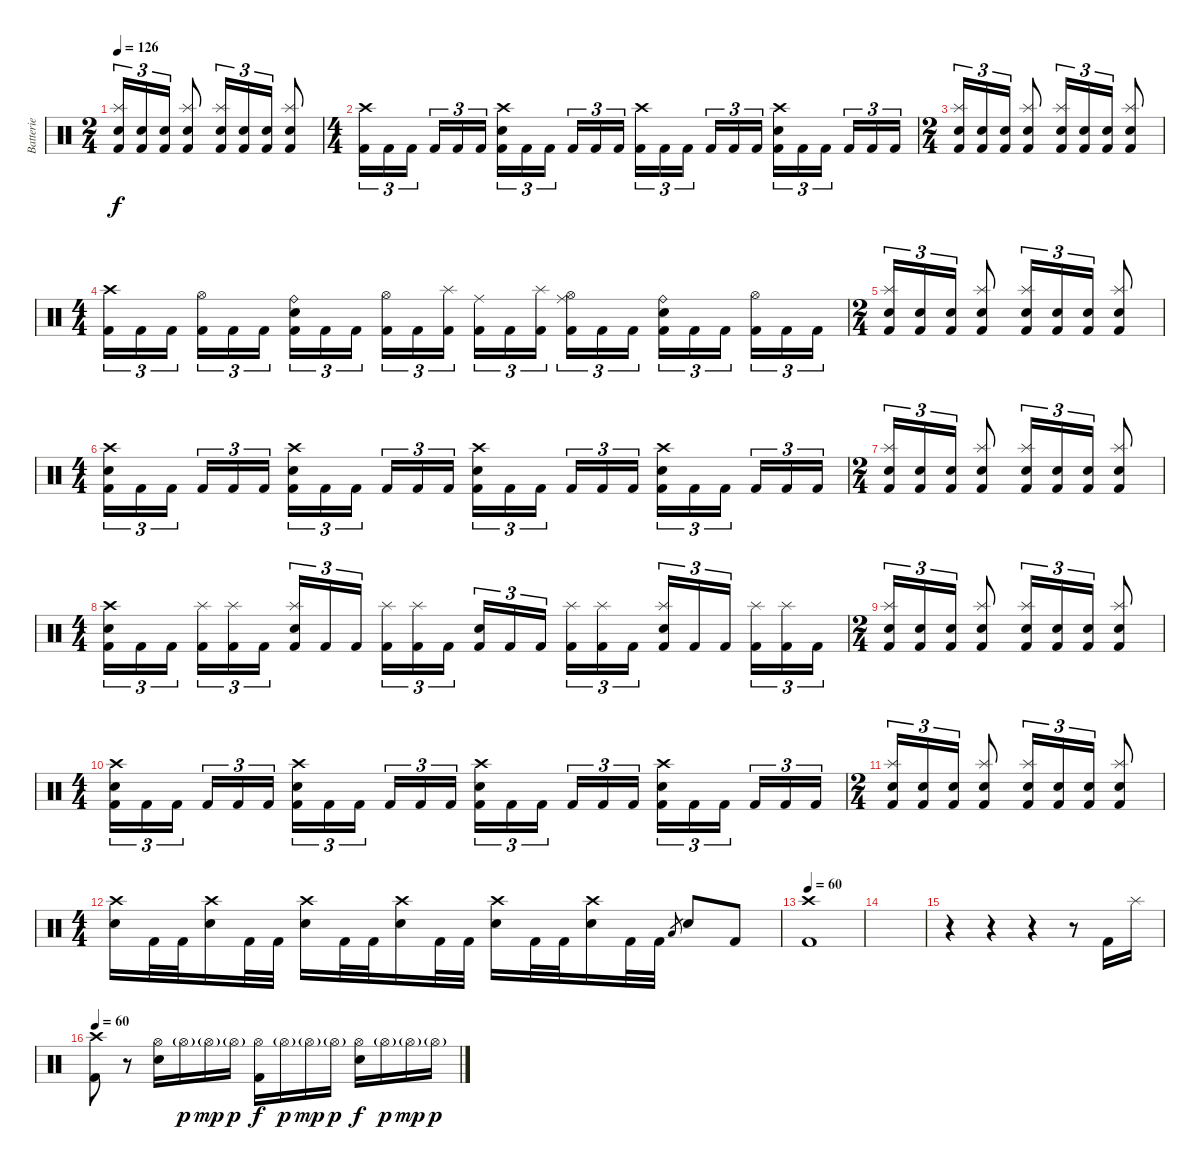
\track ("Batterie" "Batterie") {instrument percussion}
\staff {score}
\articulation defaults
\ts (2 4)
\tempo 126
\clef neutral
\ks c
("Electric Snare (hit)" "Splash (hit)" "Kick (hit) 2").16{tu (3 2) dy f} ("Electric Snare (hit)" "Kick (hit) 2").16{tu (3 2)} ("Electric Snare (hit)" "Kick (hit) 2").16{tu (3 2)} ("Electric Snare (hit)" "Splash (hit)" "Kick (hit) 2").8 ("Electric Snare (hit)" "Splash (hit)" "Kick (hit) 2").16{tu (3 2)} ("Electric Snare (hit)" "Kick (hit) 2").16{tu (3 2)} ("Electric Snare (hit)" "Kick (hit) 2").16{tu (3 2)} ("Electric Snare (hit)" "Splash (hit)" "Kick (hit) 2").8 |
\ts (4 4)
("Crash high (hit)" "Kick (hit) 2").16{tu (3 2)} "Kick (hit) 2".16{tu (3 2)} "Kick (hit) 2".16{tu (3 2)} "Kick (hit) 2".16{tu (3 2)} "Kick (hit) 2".16{tu (3 2)} "Kick (hit) 2".16{tu (3 2)} ("Electric Snare (hit)" "Crash high (hit)" "Kick (hit) 2").16{tu (3 2)} "Kick (hit) 2".16{tu (3 2)} "Kick (hit) 2".16{tu (3 2)} "Kick (hit) 2".16{tu (3 2)} "Kick (hit) 2".16{tu (3 2)} "Kick (hit) 2".16{tu (3 2)} ("Crash high (hit)" "Kick (hit) 2").16{tu (3 2)} "Kick (hit) 2".16{tu (3 2)} "Kick (hit) 2".16{tu (3 2)} "Kick (hit) 2".16{tu (3 2)} "Kick (hit) 2".16{tu (3 2)} "Kick (hit) 2".16{tu (3 2)} ("Electric Snare (hit)" "Crash high (hit)" "Kick (hit) 2").16{tu (3 2)} "Kick (hit) 2".16{tu (3 2)} "Kick (hit) 2".16{tu (3 2)} "Kick (hit) 2".16{tu (3 2)} "Kick (hit) 2".16{tu (3 2)} "Kick (hit) 2".16{tu (3 2)} |
\ts (2 4)
("Electric Snare (hit)" "Splash (hit)" "Kick (hit) 2").16{tu (3 2)} ("Electric Snare (hit)" "Kick (hit) 2").16{tu (3 2)} ("Electric Snare (hit)" "Kick (hit) 2").16{tu (3 2)} ("Electric Snare (hit)" "Splash (hit)" "Kick (hit) 2").8 ("Electric Snare (hit)" "Splash (hit)" "Kick (hit) 2").16{tu (3 2)} ("Electric Snare (hit)" "Kick (hit) 2").16{tu (3 2)} ("Electric Snare (hit)" "Kick (hit) 2").16{tu (3 2)} ("Electric Snare (hit)" "Splash (hit)" "Kick (hit) 2").8 |
\ts (4 4)
("Crash high (hit)" "Kick (hit) 2").16{tu (3 2)} "Kick (hit) 2".16{tu (3 2)} "Kick (hit) 2".16{tu (3 2)} ("Hi-Hat (open)" "Kick (hit) 2").16{tu (3 2)} "Kick (hit) 2".16{tu (3 2)} "Kick (hit) 2".16{tu (3 2)} ("Ride (bell)" "Electric Snare (hit)" "Kick (hit) 2").16{tu (3 2)} "Kick (hit) 2".16{tu (3 2)} "Kick (hit) 2".16{tu (3 2)} ("Hi-Hat (open)" "Kick (hit) 2").16{tu (3 2)} "Kick (hit) 2".16{tu (3 2)} ("Splash (hit)" "Kick (hit) 2").16{tu (3 2)} ("Ride (middle)" "Kick (hit) 2").16{tu (3 2)} "Kick (hit) 2".16{tu (3 2)} ("Splash (hit)" "Kick (hit) 2").16{tu (3 2)} ("Ride (middle)" "Hi-Hat (open)" "Kick (hit) 2").16{tu (3 2)} "Kick (hit) 2".16{tu (3 2)} "Kick (hit) 2".16{tu (3 2)} ("Ride (bell)" "Electric Snare (hit)" "Kick (hit) 2").16{tu (3 2)} "Kick (hit) 2".16{tu (3 2)} "Kick (hit) 2".16{tu (3 2)} ("Hi-Hat (open)" "Kick (hit) 2").16{tu (3 2)} "Kick (hit) 2".16{tu (3 2)} "Kick (hit) 2".16{tu (3 2)} |
\ts (2 4)
("Electric Snare (hit)" "Splash (hit)" "Kick (hit) 2").16{tu (3 2)} ("Electric Snare (hit)" "Kick (hit) 2").16{tu (3 2)} ("Electric Snare (hit)" "Kick (hit) 2").16{tu (3 2)} ("Electric Snare (hit)" "Splash (hit)" "Kick (hit) 2").8 ("Electric Snare (hit)" "Splash (hit)" "Kick (hit) 2").16{tu (3 2)} ("Electric Snare (hit)" "Kick (hit) 2").16{tu (3 2)} ("Electric Snare (hit)" "Kick (hit) 2").16{tu (3 2)} ("Electric Snare (hit)" "Splash (hit)" "Kick (hit) 2").8 |
\ts (4 4)
("Crash high (hit)" "Electric Snare (hit)" "Kick (hit) 2").16{tu (3 2)} "Kick (hit) 2".16{tu (3 2)} "Kick (hit) 2".16{tu (3 2)} "Kick (hit) 2".16{tu (3 2)} "Kick (hit) 2".16{tu (3 2)} "Kick (hit) 2".16{tu (3 2)} ("Electric Snare (hit)" "Crash high (hit)" "Kick (hit) 2").16{tu (3 2)} "Kick (hit) 2".16{tu (3 2)} "Kick (hit) 2".16{tu (3 2)} "Kick (hit) 2".16{tu (3 2)} "Kick (hit) 2".16{tu (3 2)} "Kick (hit) 2".16{tu (3 2)} ("Crash high (hit)" "Electric Snare (hit)" "Kick (hit) 2").16{tu (3 2)} "Kick (hit) 2".16{tu (3 2)} "Kick (hit) 2".16{tu (3 2)} "Kick (hit) 2".16{tu (3 2)} "Kick (hit) 2".16{tu (3 2)} "Kick (hit) 2".16{tu (3 2)} ("Electric Snare (hit)" "Crash high (hit)" "Kick (hit) 2").16{tu (3 2)} "Kick (hit) 2".16{tu (3 2)} "Kick (hit) 2".16{tu (3 2)} "Kick (hit) 2".16{tu (3 2)} "Kick (hit) 2".16{tu (3 2)} "Kick (hit) 2".16{tu (3 2)} |
\ts (2 4)
("Electric Snare (hit)" "Splash (hit)" "Kick (hit) 2").16{tu (3 2)} ("Electric Snare (hit)" "Kick (hit) 2").16{tu (3 2)} ("Electric Snare (hit)" "Kick (hit) 2").16{tu (3 2)} ("Electric Snare (hit)" "Splash (hit)" "Kick (hit) 2").8 ("Electric Snare (hit)" "Splash (hit)" "Kick (hit) 2").16{tu (3 2)} ("Electric Snare (hit)" "Kick (hit) 2").16{tu (3 2)} ("Electric Snare (hit)" "Kick (hit) 2").16{tu (3 2)} ("Electric Snare (hit)" "Splash (hit)" "Kick (hit) 2").8 |
\ts (4 4)
("Electric Snare (hit)" "Crash high (hit)" "Kick (hit) 2").16{tu (3 2)} "Kick (hit) 2".16{tu (3 2)} "Kick (hit) 2".16{tu (3 2)} ("Splash (hit)" "Kick (hit) 2").16{tu (3 2)} ("Splash (hit)" "Kick (hit) 2").16{tu (3 2)} "Kick (hit) 2".16{tu (3 2)} ("Splash (hit)" "Electric Snare (hit)" "Kick (hit) 2").16{tu (3 2)} "Kick (hit) 2".16{tu (3 2)} "Kick (hit) 2".16{tu (3 2)} ("Splash (hit)" "Kick (hit) 2").16{tu (3 2)} ("Splash (hit)" "Kick (hit) 2").16{tu (3 2)} "Kick (hit) 2".16{tu (3 2)} ("Electric Snare (hit)" "Kick (hit) 2").16{tu (3 2)} "Kick (hit) 2".16{tu (3 2)} "Kick (hit) 2".16{tu (3 2)} ("Splash (hit)" "Kick (hit) 2").16{tu (3 2)} ("Splash (hit)" "Kick (hit) 2").16{tu (3 2)} "Kick (hit) 2".16{tu (3 2)} ("Splash (hit)" "Electric Snare (hit)" "Kick (hit) 2").16{tu (3 2)} "Kick (hit) 2".16{tu (3 2)} "Kick (hit) 2".16{tu (3 2)} ("Splash (hit)" "Kick (hit) 2").16{tu (3 2)} ("Splash (hit)" "Kick (hit) 2").16{tu (3 2)} "Kick (hit) 2".16{tu (3 2)} |
\ts (2 4)
("Electric Snare (hit)" "Splash (hit)" "Kick (hit) 2").16{tu (3 2)} ("Electric Snare (hit)" "Kick (hit) 2").16{tu (3 2)} ("Electric Snare (hit)" "Kick (hit) 2").16{tu (3 2)} ("Electric Snare (hit)" "Splash (hit)" "Kick (hit) 2").8 ("Electric Snare (hit)" "Splash (hit)" "Kick (hit) 2").16{tu (3 2)} ("Electric Snare (hit)" "Kick (hit) 2").16{tu (3 2)} ("Electric Snare (hit)" "Kick (hit) 2").16{tu (3 2)} ("Electric Snare (hit)" "Splash (hit)" "Kick (hit) 2").8 |
\ts (4 4)
("Crash high (hit)" "Electric Snare (hit)" "Kick (hit) 2").16{tu (3 2)} "Kick (hit) 2".16{tu (3 2)} "Kick (hit) 2".16{tu (3 2)} "Kick (hit) 2".16{tu (3 2)} "Kick (hit) 2".16{tu (3 2)} "Kick (hit) 2".16{tu (3 2)} ("Electric Snare (hit)" "Crash high (hit)" "Kick (hit) 2").16{tu (3 2)} "Kick (hit) 2".16{tu (3 2)} "Kick (hit) 2".16{tu (3 2)} "Kick (hit) 2".16{tu (3 2)} "Kick (hit) 2".16{tu (3 2)} "Kick (hit) 2".16{tu (3 2)} ("Crash high (hit)" "Electric Snare (hit)" "Kick (hit) 2").16{tu (3 2)} "Kick (hit) 2".16{tu (3 2)} "Kick (hit) 2".16{tu (3 2)} "Kick (hit) 2".16{tu (3 2)} "Kick (hit) 2".16{tu (3 2)} "Kick (hit) 2".16{tu (3 2)} ("Electric Snare (hit)" "Crash high (hit)" "Kick (hit) 2").16{tu (3 2)} "Kick (hit) 2".16{tu (3 2)} "Kick (hit) 2".16{tu (3 2)} "Kick (hit) 2".16{tu (3 2)} "Kick (hit) 2".16{tu (3 2)} "Kick (hit) 2".16{tu (3 2)} |
\ts (2 4)
("Electric Snare (hit)" "Splash (hit)" "Kick (hit) 2").16{tu (3 2)} ("Electric Snare (hit)" "Kick (hit) 2").16{tu (3 2)} ("Electric Snare (hit)" "Kick (hit) 2").16{tu (3 2)} ("Electric Snare (hit)" "Splash (hit)" "Kick (hit) 2").8 ("Electric Snare (hit)" "Splash (hit)" "Kick (hit) 2").16{tu (3 2)} ("Electric Snare (hit)" "Kick (hit) 2").16{tu (3 2)} ("Electric Snare (hit)" "Kick (hit) 2").16{tu (3 2)} ("Electric Snare (hit)" "Splash (hit)" "Kick (hit) 2").8 |
\ts (4 4)
("Crash high (hit)" "Electric Snare (hit)").16 "Kick (hit) 2".32 "Kick (hit) 2".32 ("Crash high (hit)" "Electric Snare (hit)").16 "Kick (hit) 2".32 "Kick (hit) 2".32 ("Crash high (hit)" "Electric Snare (hit)").16 "Kick (hit) 2".32 "Kick (hit) 2".32 ("Crash high (hit)" "Electric Snare (hit)").16 "Kick (hit) 2".32 "Kick (hit) 2".32 ("Crash high (hit)" "Electric Snare (hit)").16 "Kick (hit) 2".32 "Kick (hit) 2".32 ("Crash high (hit)" "Electric Snare (hit)").16 "Kick (hit) 2".32 "Kick (hit) 2".32 "Low Tom (hit)".8{gr} "Electric Snare (hit)".8 "Kick (hit) 2".8 |
\tempo 60
("Crash high (hit)" "Kick (hit) 2").1 |
|
r.4 r.4 r.4 r.8 "Kick (hit) 2".16 "Splash (hit)".16 |
\tempo 60
("Crash high (hit)" "Kick (hit) 2").8 r.8 ("Electric Snare (hit)" "Hi-Hat (open)").16 "Hi-Hat (open)"{g}.16{dy p} "Hi-Hat (open)"{g}.16{dy mp} "Hi-Hat (open)"{g}.16{dy p} ("Hi-Hat (open)" "Kick (hit) 2").16{dy f} "Hi-Hat (open)"{g}.16{dy p} "Hi-Hat (open)"{g}.16{dy mp} "Hi-Hat (open)"{g}.16{dy p} ("Hi-Hat (open)" "Electric Snare (hit)").16{dy f} "Hi-Hat (open)"{g}.16{dy p} "Hi-Hat (open)"{g}.16{dy mp} "Hi-Hat (open)"{g}.16{dy p}
